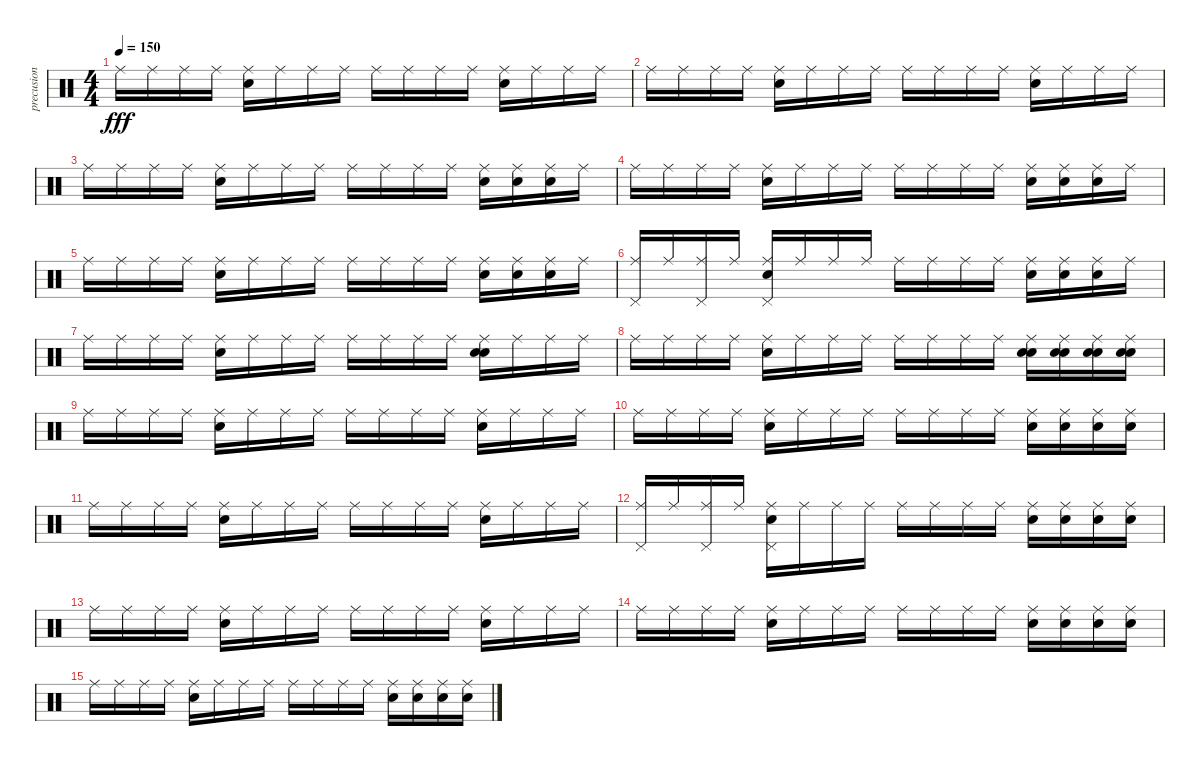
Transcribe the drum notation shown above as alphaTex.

\track ("precusion" "precusion") {instrument percussion}
\staff {score}
\articulation defaults
\ts (4 4)
\tempo 150
\clef neutral
\ks c "Ride (middle)".16{dy fff} "Ride (middle)".16 "Ride (middle)".16 "Ride (middle)".16
("Ride (middle)" "Hand Clap (hit)").16 "Ride (middle)".16 "Ride (middle)".16 "Ride (middle)".16 "Ride (middle)".16 "Ride (middle)".16 "Ride (middle)".16 "Ride (middle)".16 ("Ride (middle)" "Hand Clap (hit)").16 "Ride (middle)".16 "Ride (middle)".16 "Ride (middle)".16 |
"Ride (middle)".16 "Ride (middle)".16 "Ride (middle)".16 "Ride (middle)".16 ("Ride (middle)" "Hand Clap (hit)").16 "Ride (middle)".16 "Ride (middle)".16 "Ride (middle)".16 "Ride (middle)".16 "Ride (middle)".16 "Ride (middle)".16 "Ride (middle)".16 ("Ride (middle)" "Hand Clap (hit)").16 "Ride (middle)".16 "Ride (middle)".16 "Ride (middle)".16 |
"Ride (middle)".16 "Ride (middle)".16 "Ride (middle)".16 "Ride (middle)".16 ("Ride (middle)" "Hand Clap (hit)").16 "Ride (middle)".16 "Ride (middle)".16 "Ride (middle)".16 "Ride (middle)".16 "Ride (middle)".16 "Ride (middle)".16 "Ride (middle)".16 ("Ride (middle)" "Hand Clap (hit)").16 ("Ride (middle)" "Hand Clap (hit)").16 ("Ride (middle)" "Hand Clap (hit)").16 "Ride (middle)".16 |
"Ride (middle)".16 "Ride (middle)".16 "Ride (middle)".16 "Ride (middle)".16 ("Ride (middle)" "Hand Clap (hit)").16 "Ride (middle)".16 "Ride (middle)".16 "Ride (middle)".16 "Ride (middle)".16 "Ride (middle)".16 "Ride (middle)".16 "Ride (middle)".16 ("Ride (middle)" "Hand Clap (hit)").16 ("Ride (middle)" "Hand Clap (hit)").16 ("Ride (middle)" "Hand Clap (hit)").16 "Ride (middle)".16 |
"Ride (middle)".16 "Ride (middle)".16 "Ride (middle)".16 "Ride (middle)".16 ("Ride (middle)" "Hand Clap (hit)").16 "Ride (middle)".16 "Ride (middle)".16 "Ride (middle)".16 "Ride (middle)".16 "Ride (middle)".16 "Ride (middle)".16 "Ride (middle)".16 ("Ride (middle)" "Hand Clap (hit)").16 ("Ride (middle)" "Hand Clap (hit)").16 ("Ride (middle)" "Hand Clap (hit)").16 "Ride (middle)".16 |
("Ride (middle)" "Pedal Hi-Hat (hit)").16 "Ride (middle)".16 ("Ride (middle)" "Pedal Hi-Hat (hit)").16 "Ride (middle)".16 ("Ride (middle)" "Hand Clap (hit)" "Pedal Hi-Hat (hit)").16 "Ride (middle)".16 "Ride (middle)".16 "Ride (middle)".16 "Ride (middle)".16 "Ride (middle)".16 "Ride (middle)".16 "Ride (middle)".16 ("Ride (middle)" "Hand Clap (hit)").16 ("Ride (middle)" "Hand Clap (hit)").16 ("Ride (middle)" "Hand Clap (hit)").16 "Ride (middle)".16 |
"Ride (middle)".16 "Ride (middle)".16 "Ride (middle)".16 "Ride (middle)".16 ("Ride (middle)" "Hand Clap (hit)").16 "Ride (middle)".16 "Ride (middle)".16 "Ride (middle)".16 "Ride (middle)".16 "Ride (middle)".16 "Ride (middle)".16 "Ride (middle)".16 ("Ride (middle)" "Hand Clap (hit)" "Snare (hit) 2").16 "Ride (middle)".16 "Ride (middle)".16 "Ride (middle)".16 |
"Ride (middle)".16 "Ride (middle)".16 "Ride (middle)".16 "Ride (middle)".16 ("Ride (middle)" "Hand Clap (hit)").16 "Ride (middle)".16 "Ride (middle)".16 "Ride (middle)".16 "Ride (middle)".16 "Ride (middle)".16 "Ride (middle)".16 "Ride (middle)".16 ("Ride (middle)" "Snare (hit) 2" "Hand Clap (hit)").16 ("Hand Clap (hit)" "Snare (hit) 2" "Ride (middle)").16 ("Snare (hit) 2" "Hand Clap (hit)" "Ride (middle)").16 ("Hand Clap (hit)" "Snare (hit) 2" "Ride (middle)").16 |
"Ride (middle)".16 "Ride (middle)".16 "Ride (middle)".16 "Ride (middle)".16 ("Ride (middle)" "Snare (hit) 2").16 "Ride (middle)".16 "Ride (middle)".16 "Ride (middle)".16 "Ride (middle)".16 "Ride (middle)".16 "Ride (middle)".16 "Ride (middle)".16 ("Ride (middle)" "Snare (hit) 2").16 "Ride (middle)".16 "Ride (middle)".16 "Ride (middle)".16 |
"Ride (middle)".16 "Ride (middle)".16 "Ride (middle)".16 "Ride (middle)".16 ("Ride (middle)" "Snare (hit) 2").16 "Ride (middle)".16 "Ride (middle)".16 "Ride (middle)".16 "Ride (middle)".16 "Ride (middle)".16 "Ride (middle)".16 "Ride (middle)".16 ("Ride (middle)" "Snare (hit) 2").16 ("Ride (middle)" "Snare (hit) 2").16 ("Ride (middle)" "Snare (hit) 2").16 ("Ride (middle)" "Snare (hit) 2").16 |
"Ride (middle)".16 "Ride (middle)".16 "Ride (middle)".16 "Ride (middle)".16 ("Ride (middle)" "Snare (hit) 2").16 "Ride (middle)".16 "Ride (middle)".16 "Ride (middle)".16 "Ride (middle)".16 "Ride (middle)".16 "Ride (middle)".16 "Ride (middle)".16 ("Ride (middle)" "Snare (hit) 2").16 "Ride (middle)".16 "Ride (middle)".16 "Ride (middle)".16 |
("Ride (middle)" "Pedal Hi-Hat (hit)").16 "Ride (middle)".16 ("Ride (middle)" "Pedal Hi-Hat (hit)").16 "Ride (middle)".16 ("Ride (middle)" "Snare (hit) 2" "Pedal Hi-Hat (hit)").16 "Ride (middle)".16 "Ride (middle)".16 "Ride (middle)".16 "Ride (middle)".16 "Ride (middle)".16 "Ride (middle)".16 "Ride (middle)".16 ("Ride (middle)" "Snare (hit) 2").16 ("Ride (middle)" "Snare (hit) 2").16 ("Ride (middle)" "Snare (hit) 2").16 ("Ride (middle)" "Snare (hit) 2").16 |
"Ride (middle)".16 "Ride (middle)".16 "Ride (middle)".16 "Ride (middle)".16 ("Ride (middle)" "Snare (hit) 2").16 "Ride (middle)".16 "Ride (middle)".16 "Ride (middle)".16 "Ride (middle)".16 "Ride (middle)".16 "Ride (middle)".16 "Ride (middle)".16 ("Ride (middle)" "Snare (hit) 2").16 "Ride (middle)".16 "Ride (middle)".16 "Ride (middle)".16 |
"Ride (middle)".16 "Ride (middle)".16 "Ride (middle)".16 "Ride (middle)".16 ("Ride (middle)" "Snare (hit) 2").16 "Ride (middle)".16 "Ride (middle)".16 "Ride (middle)".16 "Ride (middle)".16 "Ride (middle)".16 "Ride (middle)".16 "Ride (middle)".16 ("Ride (middle)" "Snare (hit) 2").16 ("Snare (hit) 2" "Ride (middle)").16 ("Snare (hit) 2" "Ride (middle)").16 ("Snare (hit) 2" "Ride (middle)").16 |
"Ride (middle)".16 "Ride (middle)".16 "Ride (middle)".16 "Ride (middle)".16 ("Ride (middle)" "Hand Clap (hit)").16 "Ride (middle)".16 "Ride (middle)".16 "Ride (middle)".16 "Ride (middle)".16 "Ride (middle)".16 "Ride (middle)".16 "Ride (middle)".16 ("Ride (middle)" "Hand Clap (hit)").16 ("Ride (middle)" "Hand Clap (hit)").16 ("Ride (middle)" "Hand Clap (hit)").16 ("Ride (middle)" "Hand Clap (hit)").16
